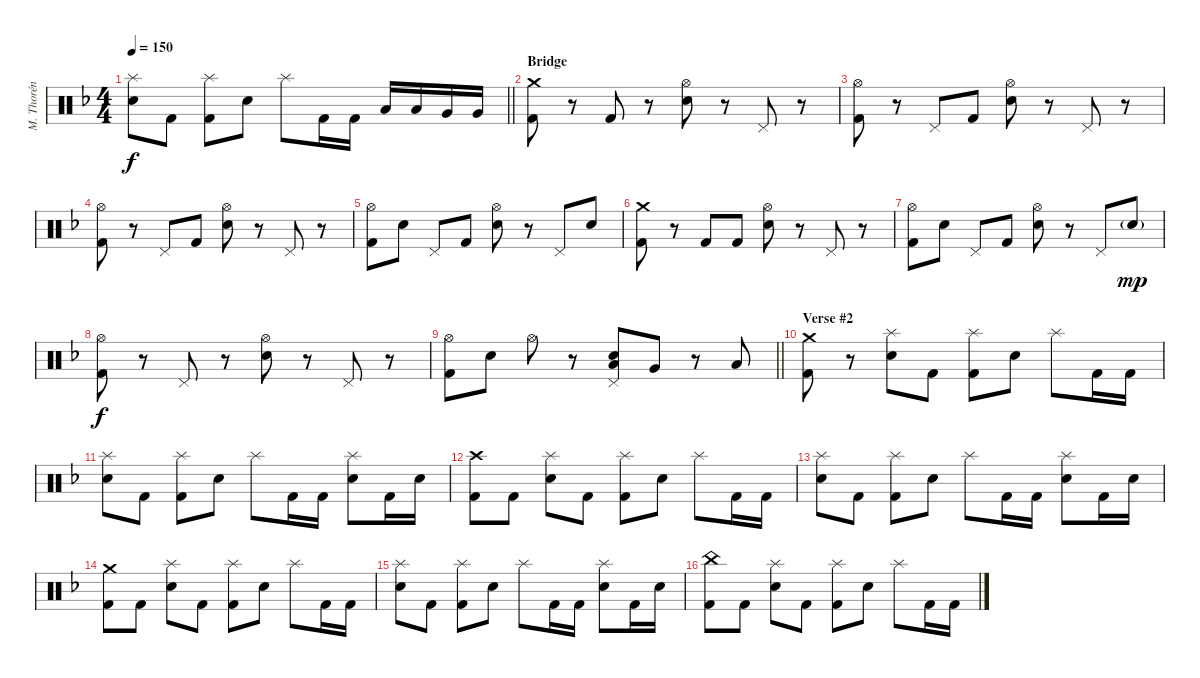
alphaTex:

\track ("M. Thorén (Drums)" "M. Thorén ") {instrument percussion}
\staff {score}
\articulation defaults
\ts (4 4)
\tempo 150
\clef neutral
\barLineRight lightlight
\ks dminor
("Splash (hit)" "Electric Snare (hit)").8{dy f} "Kick (hit) 2".8 ("Splash (hit)" "Kick (hit) 2").8 "Electric Snare (hit)".8 "Splash (hit)".8 "Kick (hit) 2".16 "Kick (hit) 2".16 "Low Tom (hit)".16 "Low Tom (hit)".16 "Very Low Tom (hit)".16 "Very Low Tom (hit)".16 |
\section ("" "Bridge")
("Crash medium (hit)" "Kick (hit) 2").8 r.8 "Kick (hit) 2".8 r.8 ("Hi-Hat (open)" "Electric Snare (hit)").8 r.8 "Pedal Hi-Hat (hit)".8 r.8 |
("Hi-Hat (open)" "Kick (hit) 2").8 r.8 "Pedal Hi-Hat (hit)".8 "Kick (hit) 2".8 ("Hi-Hat (open)" "Electric Snare (hit)").8 r.8 "Pedal Hi-Hat (hit)".8 r.8 |
("Hi-Hat (open)" "Kick (hit) 2").8 r.8 "Pedal Hi-Hat (hit)".8 "Kick (hit) 2".8 ("Hi-Hat (open)" "Electric Snare (hit)").8 r.8 "Pedal Hi-Hat (hit)".8 r.8 |
("Hi-Hat (open)" "Kick (hit) 2").8 "Electric Snare (hit)".8 "Pedal Hi-Hat (hit)".8 "Kick (hit) 2".8 ("Hi-Hat (open)" "Electric Snare (hit)").8 r.8 "Pedal Hi-Hat (hit)".8 "Electric Snare (hit)".8 |
("Crash medium (hit)" "Kick (hit) 2").8 r.8 "Kick (hit) 2".8 "Kick (hit) 2".8 ("Hi-Hat (open)" "Electric Snare (hit)").8 r.8 "Pedal Hi-Hat (hit)".8 r.8 |
("Hi-Hat (open)" "Kick (hit) 2").8 "Electric Snare (hit)".8 "Pedal Hi-Hat (hit)".8 "Kick (hit) 2".8 ("Hi-Hat (open)" "Electric Snare (hit)").8 r.8 "Pedal Hi-Hat (hit)".8 "Electric Snare (hit)"{g}.8{dy mp} |
("Hi-Hat (open)" "Kick (hit) 2").8{dy f} r.8 "Pedal Hi-Hat (hit)".8 r.8 ("Hi-Hat (open)" "Electric Snare (hit)").8 r.8 "Pedal Hi-Hat (hit)".8 r.8 |
\barLineRight lightlight
("Hi-Hat (open)" "Kick (hit) 2").8 "Electric Snare (hit)".8 "Hi-Hat (open)".8 r.8 ("Pedal Hi-Hat (hit)" "Electric Snare (hit)" "Low Tom (hit)").8 "Very Low Tom (hit)".8 r.8 "Low Floor Tom (hit)".8 |
\section ("" "Verse #2")
("Crash medium (hit)" "Kick (hit) 2").8 r.8 ("Splash (hit)" "Electric Snare (hit)").8 "Kick (hit) 2".8 ("Splash (hit)" "Kick (hit) 2").8 "Electric Snare (hit)".8 "Splash (hit)".8 "Kick (hit) 2".16 "Kick (hit) 2".16 |
("Splash (hit)" "Electric Snare (hit)").8 "Kick (hit) 2".8 ("Splash (hit)" "Kick (hit) 2").8 "Electric Snare (hit)".8 "Splash (hit)".8 "Kick (hit) 2".16 "Kick (hit) 2".16 ("Splash (hit)" "Electric Snare (hit)").8 "Kick (hit) 2".16 "Electric Snare (hit)".16 |
("Crash high (hit)" "Kick (hit) 2").8 "Kick (hit) 2".8 ("Splash (hit)" "Electric Snare (hit)").8 "Kick (hit) 2".8 ("Splash (hit)" "Kick (hit) 2").8 "Electric Snare (hit)".8 "Splash (hit)".8 "Kick (hit) 2".16 "Kick (hit) 2".16 |
("Splash (hit)" "Electric Snare (hit)").8 "Kick (hit) 2".8 ("Splash (hit)" "Kick (hit) 2").8 "Electric Snare (hit)".8 "Splash (hit)".8 "Kick (hit) 2".16 "Kick (hit) 2".16 ("Splash (hit)" "Electric Snare (hit)").8 "Kick (hit) 2".16 "Electric Snare (hit)".16 |
("Crash medium (hit)" "Kick (hit) 2").8 "Kick (hit) 2".8 ("Splash (hit)" "Electric Snare (hit)").8 "Kick (hit) 2".8 ("Splash (hit)" "Kick (hit) 2").8 "Electric Snare (hit)".8 "Splash (hit)".8 "Kick (hit) 2".16 "Kick (hit) 2".16 |
("Splash (hit)" "Electric Snare (hit)").8 "Kick (hit) 2".8 ("Splash (hit)" "Kick (hit) 2").8 "Electric Snare (hit)".8 "Splash (hit)".8 "Kick (hit) 2".16 "Kick (hit) 2".16 ("Splash (hit)" "Electric Snare (hit)").8 "Kick (hit) 2".16 "Electric Snare (hit)".16 |
("China (hit)" "Kick (hit) 2").8 "Kick (hit) 2".8 ("Splash (hit)" "Electric Snare (hit)").8 "Kick (hit) 2".8 ("Splash (hit)" "Kick (hit) 2").8 "Electric Snare (hit)".8 "Splash (hit)".8 "Kick (hit) 2".16 "Kick (hit) 2".16
